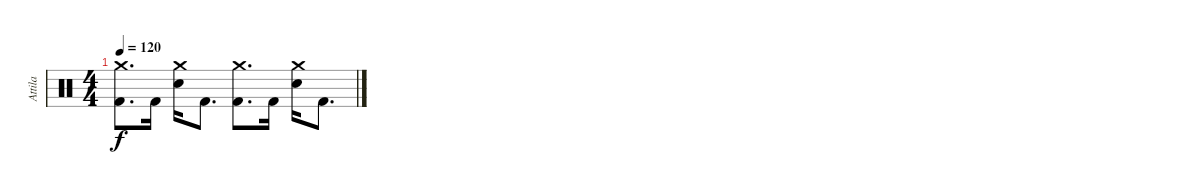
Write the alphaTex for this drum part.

\track ("Attila" "Attila") {instrument percussion}
\staff {score}
\articulation defaults
\ts (4 4)
\tempo 120
\clef neutral
\ks c
("Crash medium (hit)" "Kick (hit) 2").8{d dy f} "Kick (hit) 2".16 ("Crash medium (hit)" "Electric Snare (hit)").16 "Kick (hit) 2".8{d} ("Crash medium (hit)" "Kick (hit) 2").8{d} "Kick (hit) 2".16 ("Crash medium (hit)" "Electric Snare (hit)").16 "Kick (hit) 2".8{d}
